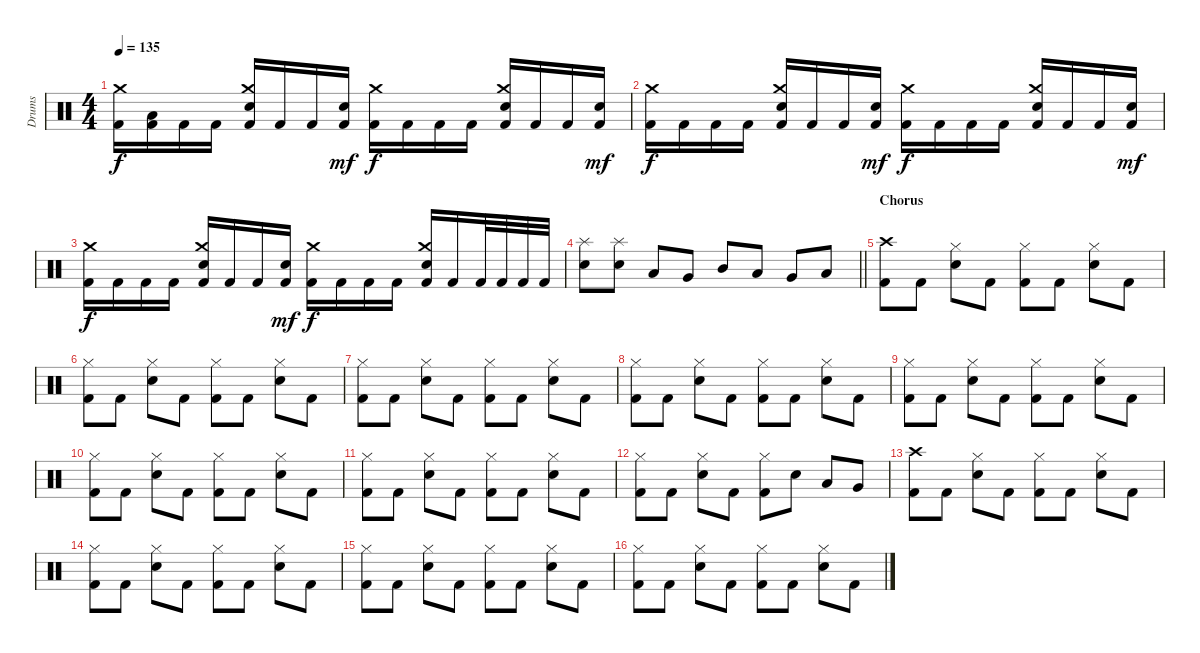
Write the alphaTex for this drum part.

\track ("Drums" "Drums") {instrument percussion}
\staff {score}
\articulation defaults
\ts (4 4)
\tempo 135
\clef neutral
\ks c
("Kick (hit) 2" "Crash medium (hit)").16{dy f} ("Kick (hit) 2" "Low Tom (hit)").16 "Kick (hit) 2".16 "Kick (hit) 2".16 ("Kick (hit) 2" "Crash medium (hit)" "Electric Snare (hit)").16 "Kick (hit) 2".16 "Kick (hit) 2".16 ("Kick (hit) 2" "Electric Snare (hit)").16{dy mf} ("Kick (hit) 2" "Crash medium (hit)").16{dy f} "Kick (hit) 2".16 "Kick (hit) 2".16 "Kick (hit) 2".16 ("Kick (hit) 2" "Crash medium (hit)" "Electric Snare (hit)").16 "Kick (hit) 2".16 "Kick (hit) 2".16 ("Kick (hit) 2" "Electric Snare (hit)").16{dy mf} |
("Kick (hit) 2" "Crash medium (hit)").16{dy f} "Kick (hit) 2".16 "Kick (hit) 2".16 "Kick (hit) 2".16 ("Kick (hit) 2" "Crash medium (hit)" "Electric Snare (hit)").16 "Kick (hit) 2".16 "Kick (hit) 2".16 ("Kick (hit) 2" "Electric Snare (hit)").16{dy mf} ("Kick (hit) 2" "Crash medium (hit)").16{dy f} "Kick (hit) 2".16 "Kick (hit) 2".16 "Kick (hit) 2".16 ("Kick (hit) 2" "Crash medium (hit)" "Electric Snare (hit)").16 "Kick (hit) 2".16 "Kick (hit) 2".16 ("Kick (hit) 2" "Electric Snare (hit)").16{dy mf} |
("Kick (hit) 2" "Crash medium (hit)").16{dy f} "Kick (hit) 2".16 "Kick (hit) 2".16 "Kick (hit) 2".16 ("Kick (hit) 2" "Crash medium (hit)" "Electric Snare (hit)").16 "Kick (hit) 2".16 "Kick (hit) 2".16 ("Kick (hit) 2" "Electric Snare (hit)").16{dy mf} ("Kick (hit) 2" "Crash medium (hit)").16{dy f} "Kick (hit) 2".16 "Kick (hit) 2".16 "Kick (hit) 2".16 ("Kick (hit) 2" "Crash medium (hit)" "Electric Snare (hit)").16 "Kick (hit) 2".16 "Kick (hit) 2".32 "Kick (hit) 2".32 "Kick (hit) 2".32 "Kick (hit) 2".32 |
\barLineRight lightlight
("Splash (hit)" "Electric Snare (hit)").8 ("Splash (hit)" "Electric Snare (hit)").8 "Low Tom (hit)".8 "Very Low Tom (hit)".8 "Mid Tom (hit)".8 "Low Tom (hit)".8 "Very Low Tom (hit)".8 "Low Floor Tom (hit)".8 |
\section ("" "Chorus")
("Kick (hit) 2" "Crash high (hit)").8 "Kick (hit) 2".8 ("Hi-Hat (closed)" "Electric Snare (hit)").8 "Kick (hit) 2".8 ("Kick (hit) 2" "Hi-Hat (closed)").8 "Kick (hit) 2".8 ("Hi-Hat (closed)" "Electric Snare (hit)").8 "Kick (hit) 2".8 |
("Kick (hit) 2" "Hi-Hat (closed)").8 "Kick (hit) 2".8 ("Hi-Hat (closed)" "Electric Snare (hit)").8 "Kick (hit) 2".8 ("Kick (hit) 2" "Hi-Hat (closed)").8 "Kick (hit) 2".8 ("Hi-Hat (closed)" "Electric Snare (hit)").8 "Kick (hit) 2".8 |
("Kick (hit) 2" "Hi-Hat (closed)").8 "Kick (hit) 2".8 ("Hi-Hat (closed)" "Electric Snare (hit)").8 "Kick (hit) 2".8 ("Kick (hit) 2" "Hi-Hat (closed)").8 "Kick (hit) 2".8 ("Hi-Hat (closed)" "Electric Snare (hit)").8 "Kick (hit) 2".8 |
("Kick (hit) 2" "Hi-Hat (closed)").8 "Kick (hit) 2".8 ("Hi-Hat (closed)" "Electric Snare (hit)").8 "Kick (hit) 2".8 ("Kick (hit) 2" "Hi-Hat (closed)").8 "Kick (hit) 2".8 ("Hi-Hat (closed)" "Electric Snare (hit)").8 "Kick (hit) 2".8 |
("Kick (hit) 2" "Hi-Hat (closed)").8 "Kick (hit) 2".8 ("Hi-Hat (closed)" "Electric Snare (hit)").8 "Kick (hit) 2".8 ("Kick (hit) 2" "Hi-Hat (closed)").8 "Kick (hit) 2".8 ("Hi-Hat (closed)" "Electric Snare (hit)").8 "Kick (hit) 2".8 |
("Kick (hit) 2" "Hi-Hat (closed)").8 "Kick (hit) 2".8 ("Hi-Hat (closed)" "Electric Snare (hit)").8 "Kick (hit) 2".8 ("Kick (hit) 2" "Hi-Hat (closed)").8 "Kick (hit) 2".8 ("Hi-Hat (closed)" "Electric Snare (hit)").8 "Kick (hit) 2".8 |
("Kick (hit) 2" "Hi-Hat (closed)").8 "Kick (hit) 2".8 ("Hi-Hat (closed)" "Electric Snare (hit)").8 "Kick (hit) 2".8 ("Kick (hit) 2" "Hi-Hat (closed)").8 "Kick (hit) 2".8 ("Hi-Hat (closed)" "Electric Snare (hit)").8 "Kick (hit) 2".8 |
("Kick (hit) 2" "Hi-Hat (closed)").8 "Kick (hit) 2".8 ("Hi-Hat (closed)" "Electric Snare (hit)").8 "Kick (hit) 2".8 ("Kick (hit) 2" "Hi-Hat (closed)").8 "Electric Snare (hit)".8 "Low Tom (hit)".8 "Very Low Tom (hit)".8 |
("Kick (hit) 2" "Crash high (hit)").8 "Kick (hit) 2".8 ("Hi-Hat (closed)" "Electric Snare (hit)").8 "Kick (hit) 2".8 ("Kick (hit) 2" "Hi-Hat (closed)").8 "Kick (hit) 2".8 ("Hi-Hat (closed)" "Electric Snare (hit)").8 "Kick (hit) 2".8 |
("Kick (hit) 2" "Hi-Hat (closed)").8 "Kick (hit) 2".8 ("Hi-Hat (closed)" "Electric Snare (hit)").8 "Kick (hit) 2".8 ("Kick (hit) 2" "Hi-Hat (closed)").8 "Kick (hit) 2".8 ("Hi-Hat (closed)" "Electric Snare (hit)").8 "Kick (hit) 2".8 |
("Kick (hit) 2" "Hi-Hat (closed)").8 "Kick (hit) 2".8 ("Hi-Hat (closed)" "Electric Snare (hit)").8 "Kick (hit) 2".8 ("Kick (hit) 2" "Hi-Hat (closed)").8 "Kick (hit) 2".8 ("Hi-Hat (closed)" "Electric Snare (hit)").8 "Kick (hit) 2".8 |
("Kick (hit) 2" "Hi-Hat (closed)").8 "Kick (hit) 2".8 ("Hi-Hat (closed)" "Electric Snare (hit)").8 "Kick (hit) 2".8 ("Kick (hit) 2" "Hi-Hat (closed)").8 "Kick (hit) 2".8 ("Hi-Hat (closed)" "Electric Snare (hit)").8 "Kick (hit) 2".8
